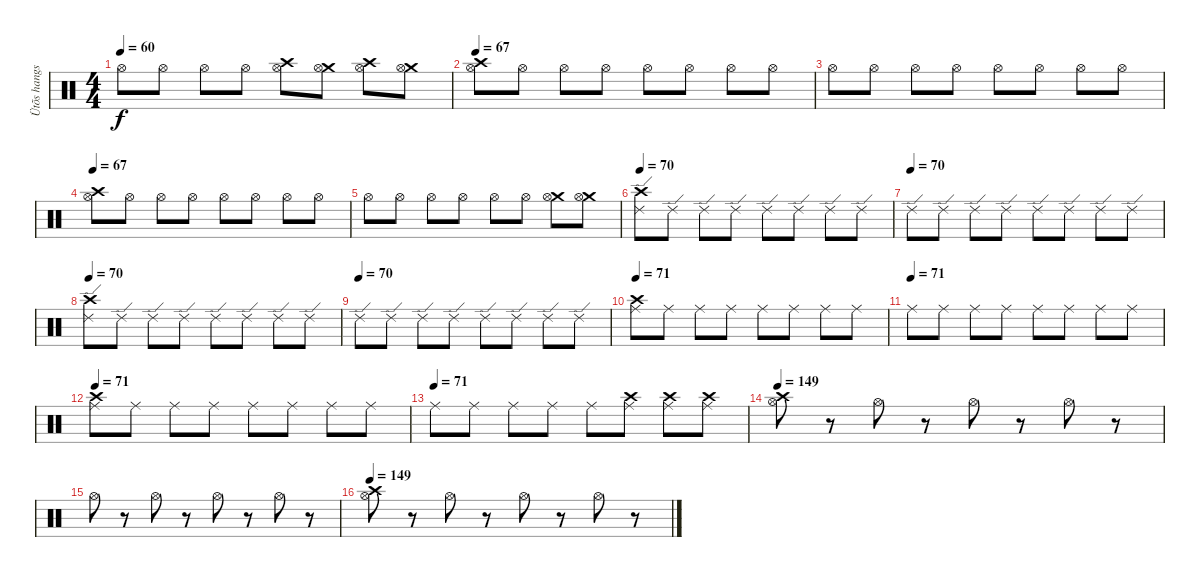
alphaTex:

\track ("Ütõs hangszer" "Ütõs hangs") {instrument percussion}
\staff {score}
\articulation defaults
\ts (4 4)
\tempo 60
\clef neutral
\ks c "Hi-Hat (open)".8{dy f} "Hi-Hat (open)".8 "Hi-Hat (open)".8 "Hi-Hat (open)".8
("Crash high (hit)" "Hi-Hat (open)").8 ("Crash medium (hit)" "Hi-Hat (open)").8 ("Crash high (hit)" "Hi-Hat (open)").8 ("Crash medium (hit)" "Hi-Hat (open)").8 |
\tempo 67
("Crash high (hit)" "Hi-Hat (open)").8 "Hi-Hat (open)".8 "Hi-Hat (open)".8 "Hi-Hat (open)".8 "Hi-Hat (open)".8 "Hi-Hat (open)".8 "Hi-Hat (open)".8 "Hi-Hat (open)".8 |
"Hi-Hat (open)".8 "Hi-Hat (open)".8 "Hi-Hat (open)".8 "Hi-Hat (open)".8 "Hi-Hat (open)".8 "Hi-Hat (open)".8 "Hi-Hat (open)".8 "Hi-Hat (open)".8 |
\tempo 67
("Crash high (hit)" "Hi-Hat (open)").8 "Hi-Hat (open)".8 "Hi-Hat (open)".8 "Hi-Hat (open)".8 "Hi-Hat (open)".8 "Hi-Hat (open)".8 "Hi-Hat (open)".8 "Hi-Hat (open)".8 |
"Hi-Hat (open)".8 "Hi-Hat (open)".8 "Hi-Hat (open)".8 "Hi-Hat (open)".8 "Hi-Hat (open)".8 "Hi-Hat (open)".8 ("Crash medium (hit)" "Hi-Hat (open)").8 ("Crash medium (hit)" "Hi-Hat (open)").8 |
\tempo 70
("Crash high (hit)" "Ride (edge) 2").8 "Ride (edge) 2".8 "Ride (edge) 2".8 "Ride (edge) 2".8 "Ride (edge) 2".8 "Ride (edge) 2".8 "Ride (edge) 2".8 "Ride (edge) 2".8 |
\tempo (70)
"Ride (edge) 2".8 "Ride (edge) 2".8 "Ride (edge) 2".8 "Ride (edge) 2".8 "Ride (edge) 2".8 "Ride (edge) 2".8 "Ride (edge) 2".8 "Ride (edge) 2".8 |
\tempo 70
("Crash high (hit)" "Ride (edge) 2").8 "Ride (edge) 2".8 "Ride (edge) 2".8 "Ride (edge) 2".8 "Ride (edge) 2".8 "Ride (edge) 2".8 "Ride (edge) 2".8 "Ride (edge) 2".8 |
\tempo (70)
"Ride (edge) 2".8 "Ride (edge) 2".8 "Ride (edge) 2".8 "Ride (edge) 2".8 "Ride (edge) 2".8 "Ride (edge) 2".8 "Ride (edge) 2".8 "Ride (edge) 2".8 |
\tempo 71
("Crash high (hit)" "Ride (middle)").8 "Ride (middle)".8 "Ride (middle)".8 "Ride (middle)".8 "Ride (middle)".8 "Ride (middle)".8 "Ride (middle)".8 "Ride (middle)".8 |
\tempo (71)
"Ride (middle)".8 "Ride (middle)".8 "Ride (middle)".8 "Ride (middle)".8 "Ride (middle)".8 "Ride (middle)".8 "Ride (middle)".8 "Ride (middle)".8 |
\tempo 71
("Crash high (hit)" "Ride (middle)").8 "Ride (middle)".8 "Ride (middle)".8 "Ride (middle)".8 "Ride (middle)".8 "Ride (middle)".8 "Ride (middle)".8 "Ride (middle)".8 |
\tempo (71)
"Ride (middle)".8 "Ride (middle)".8 "Ride (middle)".8 "Ride (middle)".8 "Ride (middle)".8 ("Crash high (hit)" "Ride (middle)").8 ("Crash high (hit)" "Ride (middle)").8 ("Crash high (hit)" "Ride (middle)").8 |
\tempo 149
("Crash high (hit)" "Hi-Hat (open)").8 r.8 "Hi-Hat (open)".8 r.8 "Hi-Hat (open)".8 r.8 "Hi-Hat (open)".8 r.8 |
"Hi-Hat (open)".8 r.8 "Hi-Hat (open)".8 r.8 "Hi-Hat (open)".8 r.8 "Hi-Hat (open)".8 r.8 |
\tempo 149
("Crash high (hit)" "Hi-Hat (open)").8 r.8 "Hi-Hat (open)".8 r.8 "Hi-Hat (open)".8 r.8 "Hi-Hat (open)".8 r.8
